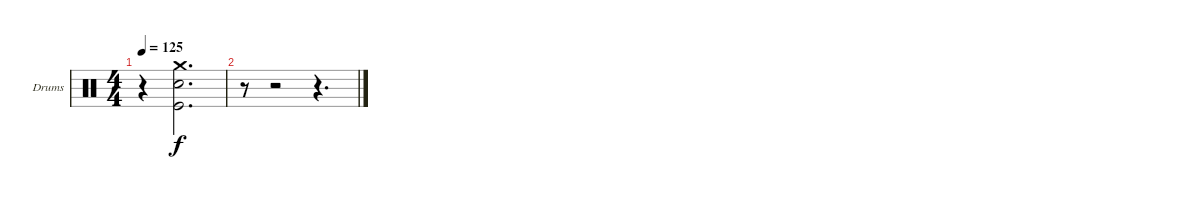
\defaultSystemsLayout 4
\bracketExtendMode groupsimilarinstruments
\firstSystemTrackNameOrientation horizontal
\otherSystemsTrackNameOrientation horizontal
\track ("Drumkit" "Drums") {instrument percussion}
\staff {score}
\articulation defaults
\ts (4 4)
\tempo 125
\clef neutral
\ks c
r.4{dy f} ("Kick (hit)" "Snare (hit) 2" "Crash medium (hit)").2{d} |
r.8 r.2 r.4{d}
